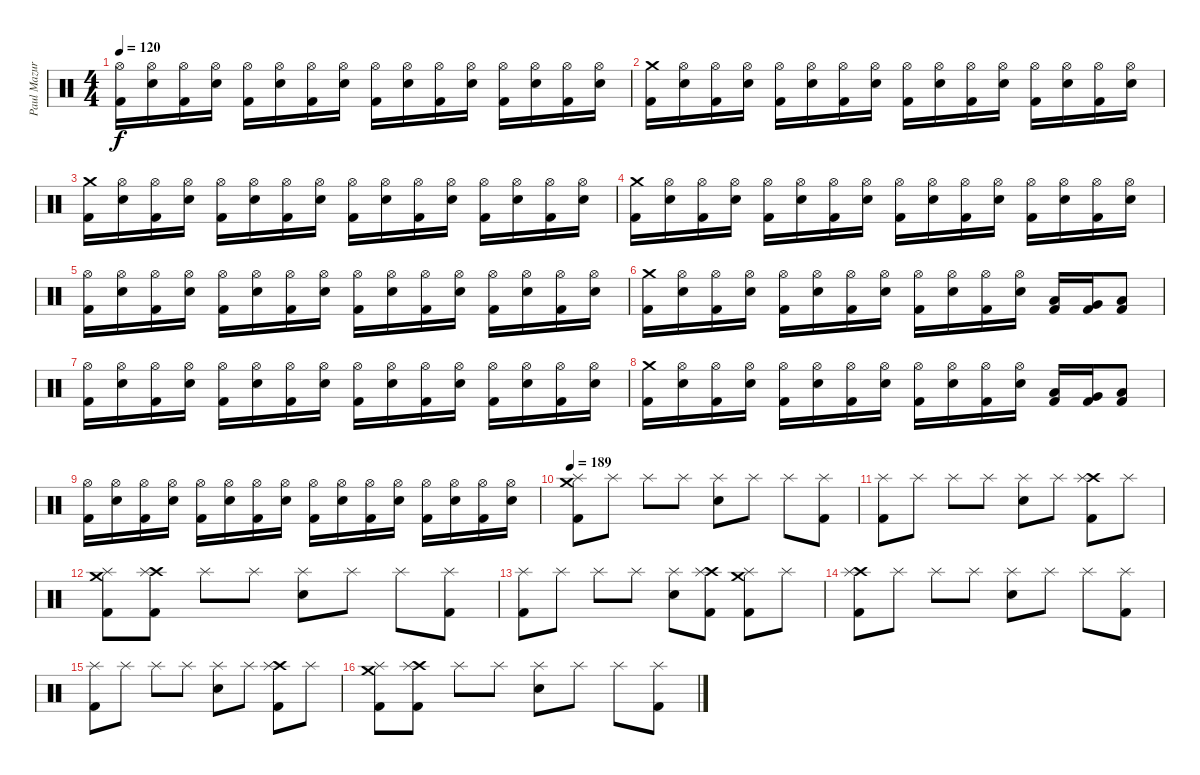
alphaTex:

\track ("Paul Mazurkevitch" "Paul Mazur") {instrument percussion}
\staff {score}
\articulation defaults
\ts (4 4)
\tempo 120
\clef neutral
\ks c
("Hi-Hat (open)" "Kick (hit) 2").16{dy f} ("Hi-Hat (open)" "Electric Snare (hit)").16 ("Hi-Hat (open)" "Kick (hit) 2").16 ("Hi-Hat (open)" "Electric Snare (hit)").16 ("Hi-Hat (open)" "Kick (hit) 2").16 ("Hi-Hat (open)" "Electric Snare (hit)").16 ("Hi-Hat (open)" "Kick (hit) 2").16 ("Hi-Hat (open)" "Electric Snare (hit)").16 ("Hi-Hat (open)" "Kick (hit) 2").16 ("Hi-Hat (open)" "Electric Snare (hit)").16 ("Hi-Hat (open)" "Kick (hit) 2").16 ("Hi-Hat (open)" "Electric Snare (hit)").16 ("Hi-Hat (open)" "Kick (hit) 2").16 ("Hi-Hat (open)" "Electric Snare (hit)").16 ("Hi-Hat (open)" "Kick (hit) 2").16 ("Hi-Hat (open)" "Electric Snare (hit)").16 |
("Crash medium (hit)" "Kick (hit) 2").16 ("Hi-Hat (open)" "Electric Snare (hit)").16 ("Hi-Hat (open)" "Kick (hit) 2").16 ("Hi-Hat (open)" "Electric Snare (hit)").16 ("Hi-Hat (open)" "Kick (hit) 2").16 ("Hi-Hat (open)" "Electric Snare (hit)").16 ("Hi-Hat (open)" "Kick (hit) 2").16 ("Hi-Hat (open)" "Electric Snare (hit)").16 ("Hi-Hat (open)" "Kick (hit) 2").16 ("Hi-Hat (open)" "Electric Snare (hit)").16 ("Hi-Hat (open)" "Kick (hit) 2").16 ("Hi-Hat (open)" "Electric Snare (hit)").16 ("Hi-Hat (open)" "Kick (hit) 2").16 ("Hi-Hat (open)" "Electric Snare (hit)").16 ("Hi-Hat (open)" "Kick (hit) 2").16 ("Hi-Hat (open)" "Electric Snare (hit)").16 |
("Crash medium (hit)" "Kick (hit) 2").16 ("Hi-Hat (open)" "Electric Snare (hit)").16 ("Hi-Hat (open)" "Kick (hit) 2").16 ("Hi-Hat (open)" "Electric Snare (hit)").16 ("Hi-Hat (open)" "Kick (hit) 2").16 ("Hi-Hat (open)" "Electric Snare (hit)").16 ("Hi-Hat (open)" "Kick (hit) 2").16 ("Hi-Hat (open)" "Electric Snare (hit)").16 ("Hi-Hat (open)" "Kick (hit) 2").16 ("Hi-Hat (open)" "Electric Snare (hit)").16 ("Hi-Hat (open)" "Kick (hit) 2").16 ("Hi-Hat (open)" "Electric Snare (hit)").16 ("Hi-Hat (open)" "Kick (hit) 2").16 ("Hi-Hat (open)" "Electric Snare (hit)").16 ("Hi-Hat (open)" "Kick (hit) 2").16 ("Hi-Hat (open)" "Electric Snare (hit)").16 |
("Crash medium (hit)" "Kick (hit) 2").16 ("Hi-Hat (open)" "Electric Snare (hit)").16 ("Hi-Hat (open)" "Kick (hit) 2").16 ("Hi-Hat (open)" "Electric Snare (hit)").16 ("Hi-Hat (open)" "Kick (hit) 2").16 ("Hi-Hat (open)" "Electric Snare (hit)").16 ("Hi-Hat (open)" "Kick (hit) 2").16 ("Hi-Hat (open)" "Electric Snare (hit)").16 ("Hi-Hat (open)" "Kick (hit) 2").16 ("Hi-Hat (open)" "Electric Snare (hit)").16 ("Hi-Hat (open)" "Kick (hit) 2").16 ("Hi-Hat (open)" "Electric Snare (hit)").16 ("Hi-Hat (open)" "Kick (hit) 2").16 ("Hi-Hat (open)" "Electric Snare (hit)").16 ("Hi-Hat (open)" "Kick (hit) 2").16 ("Hi-Hat (open)" "Electric Snare (hit)").16 |
("Hi-Hat (open)" "Kick (hit) 2").16 ("Hi-Hat (open)" "Electric Snare (hit)").16 ("Hi-Hat (open)" "Kick (hit) 2").16 ("Hi-Hat (open)" "Electric Snare (hit)").16 ("Hi-Hat (open)" "Kick (hit) 2").16 ("Hi-Hat (open)" "Electric Snare (hit)").16 ("Hi-Hat (open)" "Kick (hit) 2").16 ("Hi-Hat (open)" "Electric Snare (hit)").16 ("Hi-Hat (open)" "Kick (hit) 2").16 ("Hi-Hat (open)" "Electric Snare (hit)").16 ("Hi-Hat (open)" "Kick (hit) 2").16 ("Hi-Hat (open)" "Electric Snare (hit)").16 ("Hi-Hat (open)" "Kick (hit) 2").16 ("Hi-Hat (open)" "Electric Snare (hit)").16 ("Hi-Hat (open)" "Kick (hit) 2").16 ("Hi-Hat (open)" "Electric Snare (hit)").16 |
("Crash medium (hit)" "Kick (hit) 2").16 ("Hi-Hat (open)" "Electric Snare (hit)").16 ("Hi-Hat (open)" "Kick (hit) 2").16 ("Hi-Hat (open)" "Electric Snare (hit)").16 ("Hi-Hat (open)" "Kick (hit) 2").16 ("Hi-Hat (open)" "Electric Snare (hit)").16 ("Hi-Hat (open)" "Kick (hit) 2").16 ("Hi-Hat (open)" "Electric Snare (hit)").16 ("Hi-Hat (open)" "Kick (hit) 2").16 ("Hi-Hat (open)" "Electric Snare (hit)").16 ("Hi-Hat (open)" "Kick (hit) 2").16 ("Hi-Hat (open)" "Electric Snare (hit)").16 ("Low Tom (hit)" "Kick (hit) 2").16 ("Very Low Tom (hit)" "Kick (hit) 2").16 ("Low Floor Tom (hit)" "Kick (hit) 2").8 |
("Hi-Hat (open)" "Kick (hit) 2").16 ("Hi-Hat (open)" "Electric Snare (hit)").16 ("Hi-Hat (open)" "Kick (hit) 2").16 ("Hi-Hat (open)" "Electric Snare (hit)").16 ("Hi-Hat (open)" "Kick (hit) 2").16 ("Hi-Hat (open)" "Electric Snare (hit)").16 ("Hi-Hat (open)" "Kick (hit) 2").16 ("Hi-Hat (open)" "Electric Snare (hit)").16 ("Hi-Hat (open)" "Kick (hit) 2").16 ("Hi-Hat (open)" "Electric Snare (hit)").16 ("Hi-Hat (open)" "Kick (hit) 2").16 ("Hi-Hat (open)" "Electric Snare (hit)").16 ("Hi-Hat (open)" "Kick (hit) 2").16 ("Hi-Hat (open)" "Electric Snare (hit)").16 ("Hi-Hat (open)" "Kick (hit) 2").16 ("Hi-Hat (open)" "Electric Snare (hit)").16 |
("Crash medium (hit)" "Kick (hit) 2").16 ("Hi-Hat (open)" "Electric Snare (hit)").16 ("Hi-Hat (open)" "Kick (hit) 2").16 ("Hi-Hat (open)" "Electric Snare (hit)").16 ("Hi-Hat (open)" "Kick (hit) 2").16 ("Hi-Hat (open)" "Electric Snare (hit)").16 ("Hi-Hat (open)" "Kick (hit) 2").16 ("Hi-Hat (open)" "Electric Snare (hit)").16 ("Hi-Hat (open)" "Kick (hit) 2").16 ("Hi-Hat (open)" "Electric Snare (hit)").16 ("Hi-Hat (open)" "Kick (hit) 2").16 ("Hi-Hat (open)" "Electric Snare (hit)").16 ("Low Tom (hit)" "Kick (hit) 2").16 ("Very Low Tom (hit)" "Kick (hit) 2").16 ("Low Floor Tom (hit)" "Kick (hit) 2").8 |
("Hi-Hat (open)" "Kick (hit) 2").16 ("Hi-Hat (open)" "Electric Snare (hit)").16 ("Hi-Hat (open)" "Kick (hit) 2").16 ("Hi-Hat (open)" "Electric Snare (hit)").16 ("Hi-Hat (open)" "Kick (hit) 2").16 ("Hi-Hat (open)" "Electric Snare (hit)").16 ("Hi-Hat (open)" "Kick (hit) 2").16 ("Hi-Hat (open)" "Electric Snare (hit)").16 ("Hi-Hat (open)" "Kick (hit) 2").16 ("Hi-Hat (open)" "Electric Snare (hit)").16 ("Hi-Hat (open)" "Kick (hit) 2").16 ("Hi-Hat (open)" "Electric Snare (hit)").16 ("Hi-Hat (open)" "Kick (hit) 2").16 ("Hi-Hat (open)" "Electric Snare (hit)").16 ("Hi-Hat (open)" "Kick (hit) 2").16 ("Hi-Hat (open)" "Electric Snare (hit)").16 |
\tempo 189
("Crash medium (hit)" "Splash (hit)" "Kick (hit) 2").8 "Splash (hit)".8 "Splash (hit)".8 "Splash (hit)".8 ("Splash (hit)" "Electric Snare (hit)").8 "Splash (hit)".8 "Splash (hit)".8 ("Splash (hit)" "Kick (hit) 2").8 |
("Splash (hit)" "Kick (hit) 2").8 "Splash (hit)".8 "Splash (hit)".8 "Splash (hit)".8 ("Splash (hit)" "Electric Snare (hit)").8 "Splash (hit)".8 ("Crash high (hit)" "Splash (hit)" "Kick (hit) 2").8 "Splash (hit)".8 |
("Crash medium (hit)" "Splash (hit)" "Kick (hit) 2").8 ("Crash high (hit)" "Splash (hit)" "Kick (hit) 2").8 "Splash (hit)".8 "Splash (hit)".8 ("Splash (hit)" "Electric Snare (hit)").8 "Splash (hit)".8 "Splash (hit)".8 ("Splash (hit)" "Kick (hit) 2").8 |
("Splash (hit)" "Kick (hit) 2").8 "Splash (hit)".8 "Splash (hit)".8 "Splash (hit)".8 ("Splash (hit)" "Electric Snare (hit)").8 ("Crash high (hit)" "Splash (hit)" "Kick (hit) 2").8 ("Crash medium (hit)" "Splash (hit)" "Kick (hit) 2").8 "Splash (hit)".8 |
("Crash high (hit)" "Splash (hit)" "Kick (hit) 2").8 "Splash (hit)".8 "Splash (hit)".8 "Splash (hit)".8 ("Splash (hit)" "Electric Snare (hit)").8 "Splash (hit)".8 "Splash (hit)".8 ("Splash (hit)" "Kick (hit) 2").8 |
("Splash (hit)" "Kick (hit) 2").8 "Splash (hit)".8 "Splash (hit)".8 "Splash (hit)".8 ("Splash (hit)" "Electric Snare (hit)").8 "Splash (hit)".8 ("Crash high (hit)" "Splash (hit)" "Kick (hit) 2").8 "Splash (hit)".8 |
("Crash medium (hit)" "Splash (hit)" "Kick (hit) 2").8 ("Crash high (hit)" "Splash (hit)" "Kick (hit) 2").8 "Splash (hit)".8 "Splash (hit)".8 ("Splash (hit)" "Electric Snare (hit)").8 "Splash (hit)".8 "Splash (hit)".8 ("Splash (hit)" "Kick (hit) 2").8
